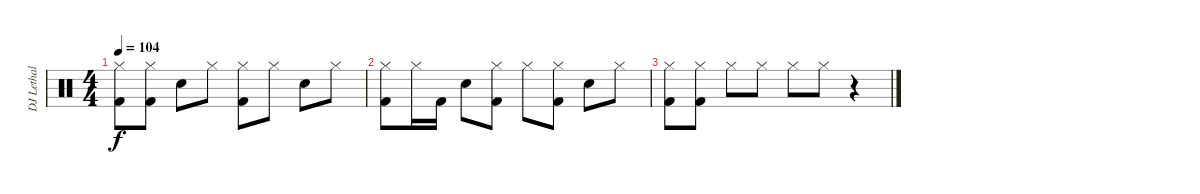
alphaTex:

\track ("DJ Lethal - Sample Drums" "DJ Lethal ") {instrument percussion}
\staff {score}
\articulation defaults
\ts (4 4)
\tempo 104
\clef neutral
\ks c
("Hi-Hat (closed)" "Kick (hit) 2").8{dy f} ("Hi-Hat (closed)" "Kick (hit) 2").8 "Electric Snare (hit)".8 "Hi-Hat (closed)".8 ("Hi-Hat (closed)" "Kick (hit) 2").8 "Hi-Hat (closed)".8 "Electric Snare (hit)".8 "Hi-Hat (closed)".8 |
("Hi-Hat (closed)" "Kick (hit) 2").8 "Hi-Hat (closed)".16 "Kick (hit) 2".16 "Electric Snare (hit)".8 ("Hi-Hat (closed)" "Kick (hit) 2").8 "Hi-Hat (closed)".8 ("Hi-Hat (closed)" "Kick (hit) 2").8 "Electric Snare (hit)".8 "Hi-Hat (closed)".8 |
("Hi-Hat (closed)" "Kick (hit) 2").8 ("Hi-Hat (closed)" "Kick (hit) 2").8 "Hi-Hat (closed)".8 "Hi-Hat (closed)".8 "Hi-Hat (closed)".8 "Hi-Hat (closed)".8 r.4
